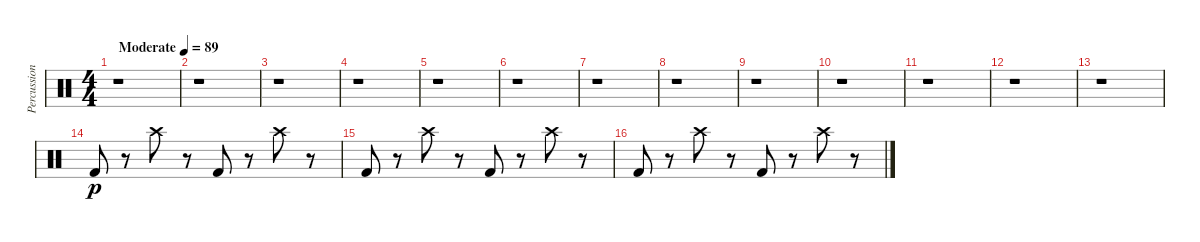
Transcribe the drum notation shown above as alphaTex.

\track ("Percussion" "Percussion") {instrument percussion}
\staff {score}
\articulation defaults
\ts (4 4)
\tempo (89 "Moderate")
\clef neutral
\ks c
r.1{dy p} |
r.1 |
r.1 |
r.1 |
r.1 |
r.1 |
r.1 |
r.1 |
r.1 |
r.1 |
r.1 |
r.1 |
r.1 |
"Kick (hit) 2".8 r.8 "Crash high (hit)".8 r.8 "Kick (hit) 2".8 r.8 "Crash high (hit)".8 r.8 |
"Kick (hit) 2".8 r.8 "Crash high (hit)".8 r.8 "Kick (hit) 2".8 r.8 "Crash high (hit)".8 r.8 |
"Kick (hit) 2".8 r.8 "Crash high (hit)".8 r.8 "Kick (hit) 2".8 r.8 "Crash high (hit)".8 r.8
